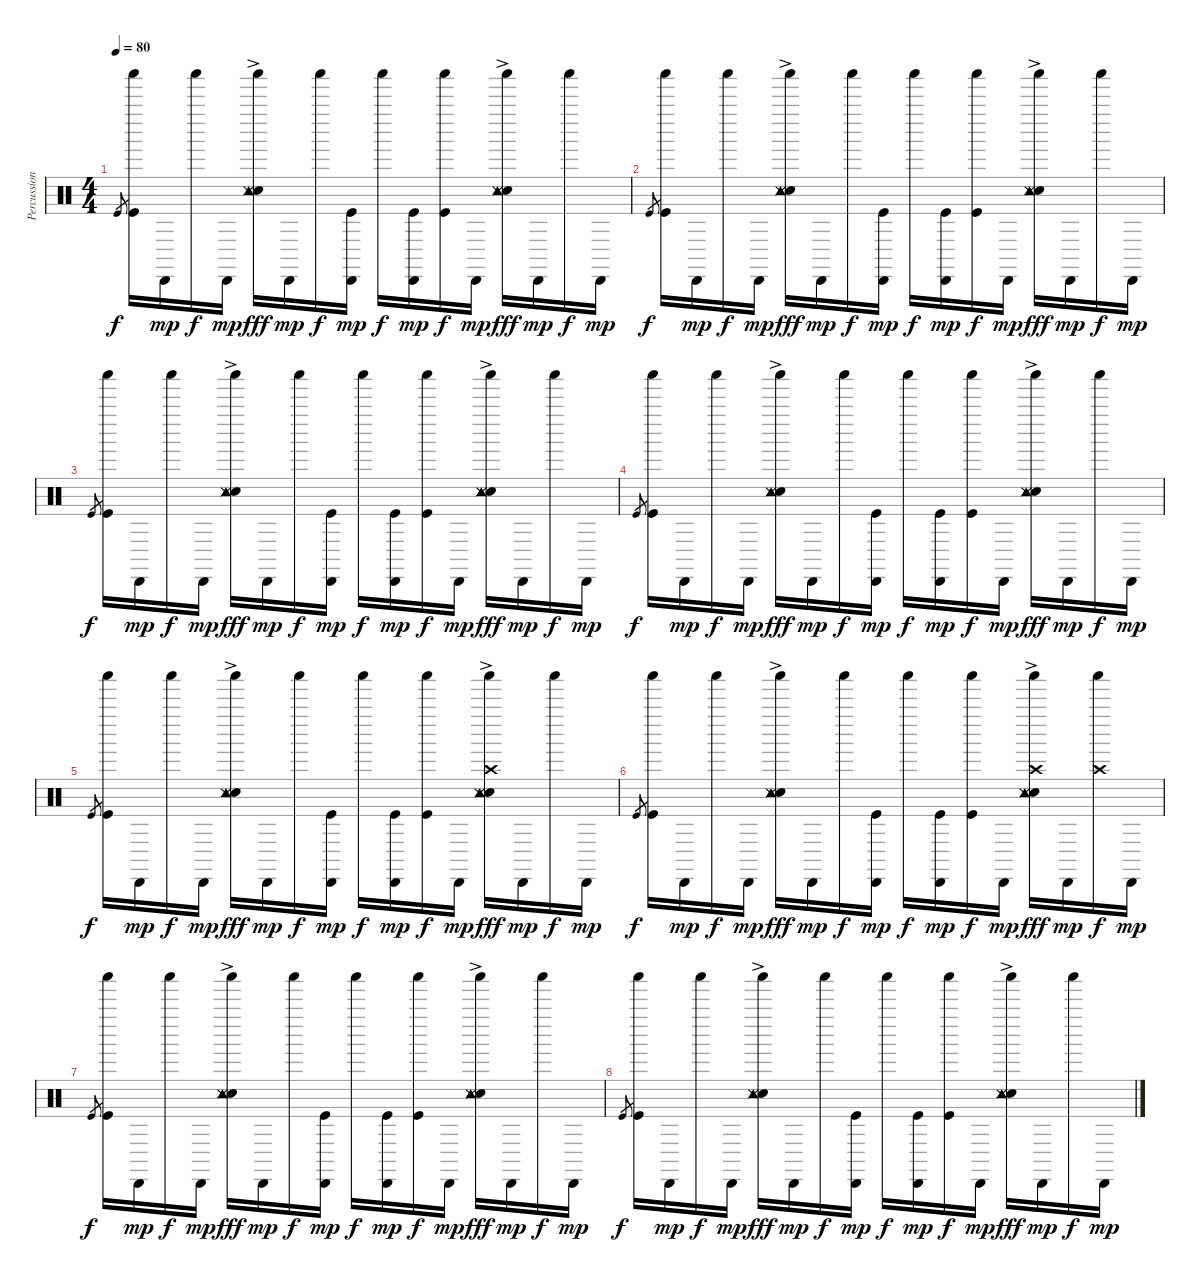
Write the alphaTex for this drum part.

\track ("Percussions" "Percussion") {instrument percussion}
\staff {score}
\articulation defaults
\ts (4 4)
\tempo 80
\clef neutral
\ks c "Kick (hit)".8{gr dy f}
("Shaker (hit)" "Kick (hit)").16 "Cabasa (hit)".16{dy mp} "Shaker (hit)".16{dy f} "Cabasa (hit)".16{dy mp} ("Shaker (hit)" "Electric Snare (hit)" "Tambourine (hit)"{ac} "Snare (side stick) 3" "Metronome (hit)").16{dy fff} "Cabasa (hit)".16{dy mp} "Shaker (hit)".16{dy f} ("Cabasa (hit)" "Kick (hit)").16{dy mp} "Shaker (hit)".16{dy f} ("Cabasa (hit)" "Kick (hit)").16{dy mp} ("Shaker (hit)" "Kick (hit)").16{dy f} "Cabasa (hit)".16{dy mp} ("Shaker (hit)" "Electric Snare (hit)" "Tambourine (hit)"{ac} "Snare (side stick) 3" "Metronome (hit)").16{dy fff} "Cabasa (hit)".16{dy mp} "Shaker (hit)".16{dy f} "Cabasa (hit)".16{dy mp} |
"Kick (hit)".8{gr dy f} ("Shaker (hit)" "Kick (hit)").16 "Cabasa (hit)".16{dy mp} "Shaker (hit)".16{dy f} "Cabasa (hit)".16{dy mp} ("Shaker (hit)" "Electric Snare (hit)" "Tambourine (hit)"{ac} "Snare (side stick) 3" "Metronome (hit)").16{dy fff} "Cabasa (hit)".16{dy mp} "Shaker (hit)".16{dy f} ("Cabasa (hit)" "Kick (hit)").16{dy mp} "Shaker (hit)".16{dy f} ("Cabasa (hit)" "Kick (hit)").16{dy mp} ("Shaker (hit)" "Kick (hit)").16{dy f} "Cabasa (hit)".16{dy mp} ("Shaker (hit)" "Electric Snare (hit)" "Tambourine (hit)"{ac} "Snare (side stick) 3" "Metronome (hit)").16{dy fff} "Cabasa (hit)".16{dy mp} "Shaker (hit)".16{dy f} "Cabasa (hit)".16{dy mp} |
"Kick (hit)".8{gr dy f} ("Shaker (hit)" "Kick (hit)").16 "Cabasa (hit)".16{dy mp} "Shaker (hit)".16{dy f} "Cabasa (hit)".16{dy mp} ("Shaker (hit)" "Electric Snare (hit)" "Tambourine (hit)"{ac} "Snare (side stick) 3" "Metronome (hit)").16{dy fff} "Cabasa (hit)".16{dy mp} "Shaker (hit)".16{dy f} ("Cabasa (hit)" "Kick (hit)").16{dy mp} "Shaker (hit)".16{dy f} ("Cabasa (hit)" "Kick (hit)").16{dy mp} ("Shaker (hit)" "Kick (hit)").16{dy f} "Cabasa (hit)".16{dy mp} ("Shaker (hit)" "Electric Snare (hit)" "Tambourine (hit)"{ac} "Snare (side stick) 3" "Metronome (hit)").16{dy fff} "Cabasa (hit)".16{dy mp} "Shaker (hit)".16{dy f} "Cabasa (hit)".16{dy mp} |
"Kick (hit)".8{gr dy f} ("Shaker (hit)" "Kick (hit)").16{volume 0} "Cabasa (hit)".16{dy mp} "Shaker (hit)".16{dy f} "Cabasa (hit)".16{dy mp} ("Shaker (hit)" "Electric Snare (hit)" "Tambourine (hit)"{ac} "Snare (side stick) 3" "Metronome (hit)").16{dy fff} "Cabasa (hit)".16{dy mp} "Shaker (hit)".16{dy f} ("Cabasa (hit)" "Kick (hit)").16{dy mp} "Shaker (hit)".16{dy f} ("Cabasa (hit)" "Kick (hit)").16{dy mp} ("Shaker (hit)" "Kick (hit)").16{dy f} "Cabasa (hit)".16{dy mp} ("Shaker (hit)" "Electric Snare (hit)" "Tambourine (hit)"{ac} "Snare (side stick) 3" "Metronome (hit)").16{dy fff} "Cabasa (hit)".16{dy mp} "Shaker (hit)".16{dy f} "Cabasa (hit)".16{dy mp} |
"Kick (hit)".8{gr dy f} ("Shaker (hit)" "Kick (hit)").16 "Cabasa (hit)".16{dy mp} "Shaker (hit)".16{dy f} "Cabasa (hit)".16{dy mp} ("Shaker (hit)" "Electric Snare (hit)" "Tambourine (hit)"{ac} "Snare (side stick) 3" "Metronome (hit)").16{dy fff} "Cabasa (hit)".16{dy mp} "Shaker (hit)".16{dy f} ("Cabasa (hit)" "Kick (hit)").16{dy mp} "Shaker (hit)".16{dy f} ("Cabasa (hit)" "Kick (hit)").16{dy mp} ("Shaker (hit)" "Kick (hit)").16{dy f} "Cabasa (hit)".16{dy mp} ("Shaker (hit)" "Crash high (hit)" "Electric Snare (hit)" "Tambourine (hit)"{ac} "Snare (side stick) 3" "Metronome (hit)").16{dy fff} "Cabasa (hit)".16{dy mp} "Shaker (hit)".16{dy f} "Cabasa (hit)".16{dy mp} |
"Kick (hit)".8{gr dy f} ("Shaker (hit)" "Kick (hit)").16 "Cabasa (hit)".16{dy mp} "Shaker (hit)".16{dy f} "Cabasa (hit)".16{dy mp} ("Shaker (hit)" "Electric Snare (hit)" "Tambourine (hit)"{ac} "Snare (side stick) 3" "Metronome (hit)").16{dy fff} "Cabasa (hit)".16{dy mp} "Shaker (hit)".16{dy f} ("Cabasa (hit)" "Kick (hit)").16{dy mp} "Shaker (hit)".16{dy f} ("Cabasa (hit)" "Kick (hit)").16{dy mp} ("Shaker (hit)" "Kick (hit)").16{dy f} "Cabasa (hit)".16{dy mp} ("Shaker (hit)" "Crash high (hit)" "Electric Snare (hit)" "Tambourine (hit)"{ac} "Snare (side stick) 3" "Metronome (hit)").16{dy fff} "Cabasa (hit)".16{dy mp} ("Shaker (hit)" "Crash high (hit)").16{dy f} "Cabasa (hit)".16{dy mp} |
"Kick (hit)".8{gr dy f} ("Shaker (hit)" "Kick (hit)").16 "Cabasa (hit)".16{dy mp} "Shaker (hit)".16{dy f} "Cabasa (hit)".16{dy mp} ("Shaker (hit)" "Electric Snare (hit)" "Tambourine (hit)"{ac} "Snare (side stick) 3" "Metronome (hit)").16{dy fff} "Cabasa (hit)".16{dy mp} "Shaker (hit)".16{dy f} ("Cabasa (hit)" "Kick (hit)").16{dy mp} "Shaker (hit)".16{dy f} ("Cabasa (hit)" "Kick (hit)").16{dy mp} ("Shaker (hit)" "Kick (hit)").16{dy f} "Cabasa (hit)".16{dy mp} ("Shaker (hit)" "Electric Snare (hit)" "Tambourine (hit)"{ac} "Snare (side stick) 3" "Metronome (hit)").16{dy fff} "Cabasa (hit)".16{dy mp} "Shaker (hit)".16{dy f} "Cabasa (hit)".16{dy mp} |
"Kick (hit)".8{gr dy f} ("Shaker (hit)" "Kick (hit)").16 "Cabasa (hit)".16{dy mp} "Shaker (hit)".16{dy f} "Cabasa (hit)".16{dy mp} ("Shaker (hit)" "Electric Snare (hit)" "Tambourine (hit)"{ac} "Snare (side stick) 3" "Metronome (hit)").16{dy fff} "Cabasa (hit)".16{dy mp} "Shaker (hit)".16{dy f} ("Cabasa (hit)" "Kick (hit)").16{dy mp} "Shaker (hit)".16{dy f} ("Cabasa (hit)" "Kick (hit)").16{dy mp} ("Shaker (hit)" "Kick (hit)").16{dy f} "Cabasa (hit)".16{dy mp} ("Shaker (hit)" "Electric Snare (hit)" "Tambourine (hit)"{ac} "Snare (side stick) 3" "Metronome (hit)").16{dy fff} "Cabasa (hit)".16{dy mp} "Shaker (hit)".16{dy f} "Cabasa (hit)".16{dy mp}
